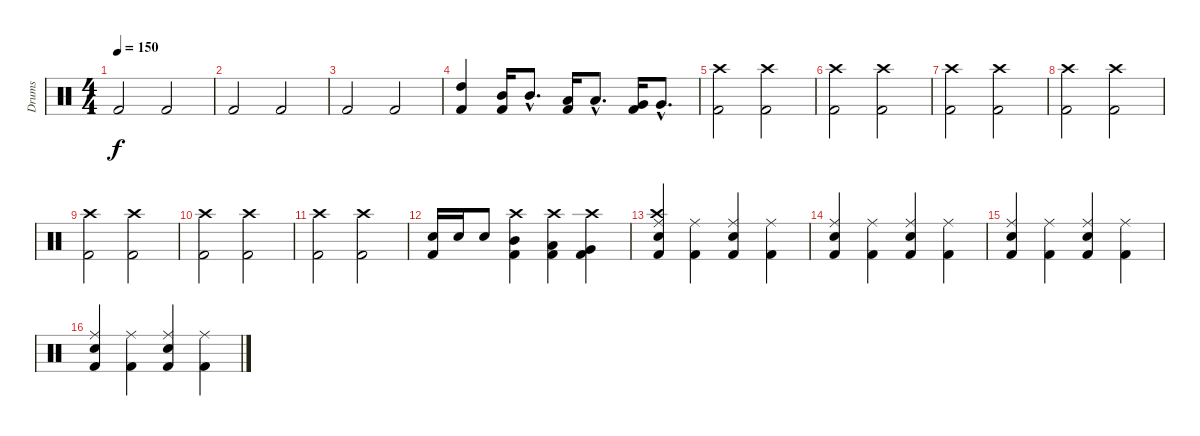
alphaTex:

\track ("Drums" "Drums") {instrument percussion}
\staff {score}
\articulation defaults
\ts (4 4)
\tempo 150
\clef neutral
\ks c "Kick (hit) 2".2{dy f} "Kick (hit) 2".2
|
"Kick (hit) 2".2 "Kick (hit) 2".2 |
"Kick (hit) 2".2 "Kick (hit) 2".2 |
("High Tom (hit)" "Kick (hit) 2").4 ("Mid Tom (hit)" "Kick (hit) 2").16 "Mid Tom (hit)"{hac}.8{d} ("Low Tom (hit)" "Kick (hit) 2").16 "Low Tom (hit)"{hac}.8{d} ("Very Low Tom (hit)" "Kick (hit) 2").16 "Very Low Tom (hit)"{hac}.8{d} |
("Crash high (hit)" "Kick (hit) 2").2 ("Crash high (hit)" "Kick (hit) 2").2 |
("Crash high (hit)" "Kick (hit) 2").2 ("Crash high (hit)" "Kick (hit) 2").2 |
("Crash high (hit)" "Kick (hit) 2").2 ("Crash high (hit)" "Kick (hit) 2").2 |
("Crash high (hit)" "Kick (hit) 2").2 ("Crash high (hit)" "Kick (hit) 2").2 |
("Crash high (hit)" "Kick (hit) 2").2 ("Crash high (hit)" "Kick (hit) 2").2 |
("Crash high (hit)" "Kick (hit) 2").2 ("Crash high (hit)" "Kick (hit) 2").2 |
("Crash high (hit)" "Kick (hit) 2").2 ("Crash high (hit)" "Kick (hit) 2").2 |
("Snare (hit) 2" "Kick (hit) 2").16 "Snare (hit) 2".16 "Snare (hit) 2".8 ("Crash high (hit)" "Mid Tom (hit)" "Kick (hit) 2").4 ("Crash high (hit)" "Low Tom (hit)" "Kick (hit) 2").4 ("Crash high (hit)" "Very Low Tom (hit)" "Kick (hit) 2").4 |
("Crash high (hit)" "Ride (middle)" "Electric Snare (hit)" "Kick (hit) 2").4 ("Ride (middle)" "Kick (hit) 2").4 ("Ride (middle)" "Electric Snare (hit)" "Kick (hit) 2").4 ("Ride (middle)" "Kick (hit) 2").4 |
("Ride (middle)" "Electric Snare (hit)" "Kick (hit) 2").4 ("Ride (middle)" "Kick (hit) 2").4 ("Ride (middle)" "Electric Snare (hit)" "Kick (hit) 2").4 ("Ride (middle)" "Kick (hit) 2").4 |
("Ride (middle)" "Electric Snare (hit)" "Kick (hit) 2").4 ("Ride (middle)" "Kick (hit) 2").4 ("Ride (middle)" "Electric Snare (hit)" "Kick (hit) 2").4 ("Ride (middle)" "Kick (hit) 2").4 |
("Ride (middle)" "Electric Snare (hit)" "Kick (hit) 2").4 ("Ride (middle)" "Kick (hit) 2").4 ("Ride (middle)" "Electric Snare (hit)" "Kick (hit) 2").4 ("Ride (middle)" "Kick (hit) 2").4
